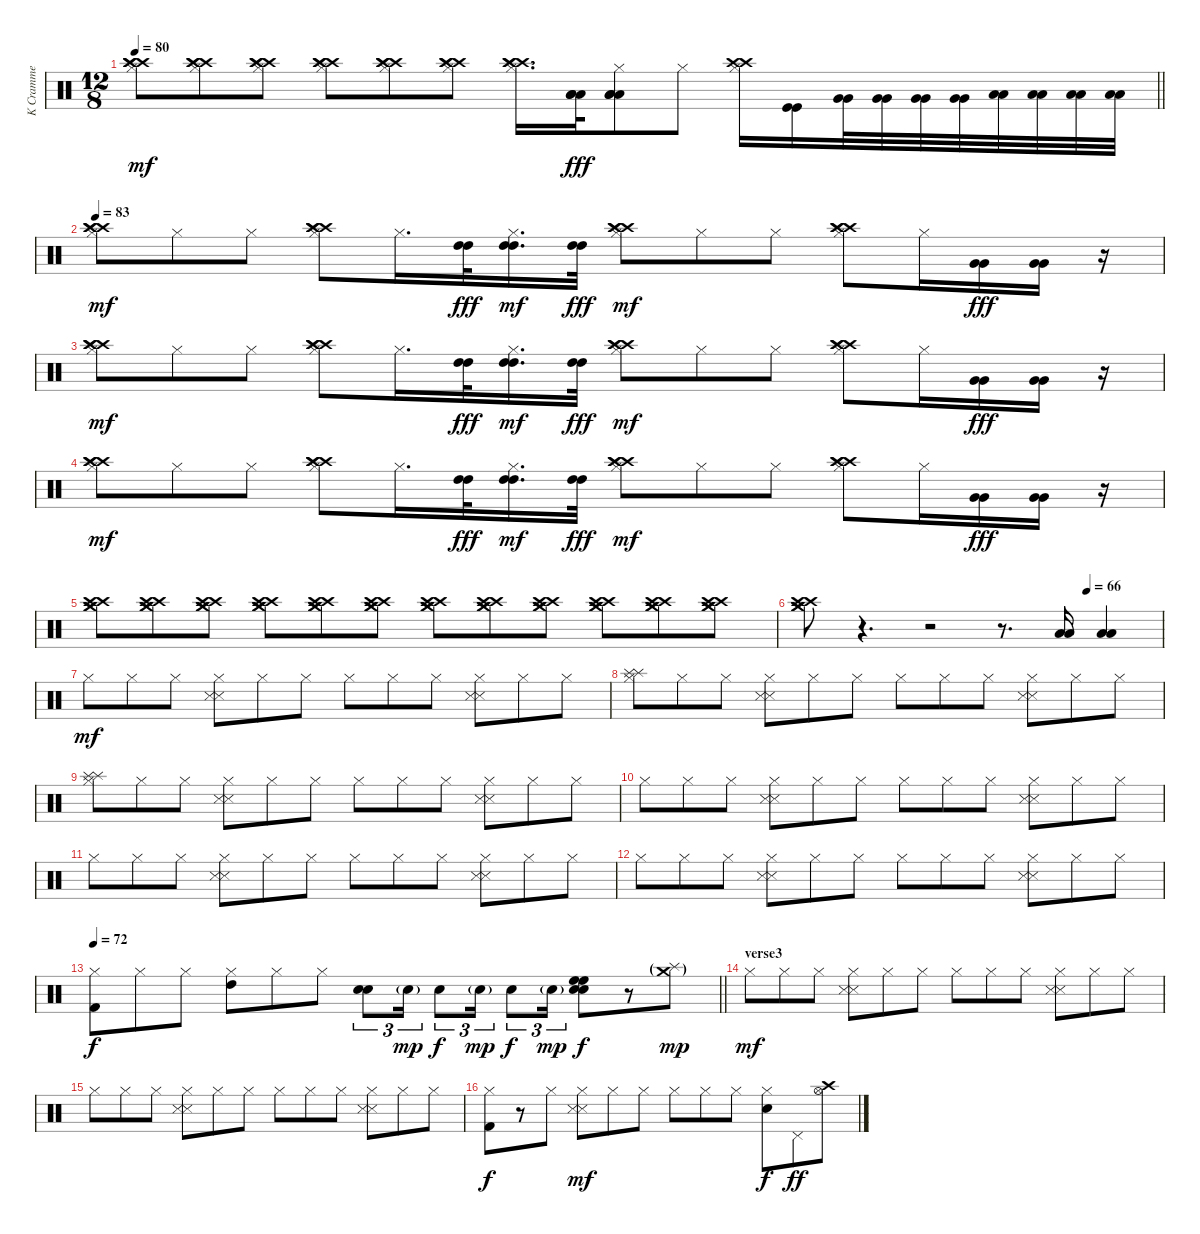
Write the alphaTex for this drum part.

\track ("K Cramme" "K Cramme") {instrument percussion}
\staff {score}
\articulation defaults
\ts (12 8)
\tempo 80
\clef neutral
\barLineRight lightlight
\ks c
("Crash high (hit)" "Crash high (hit)" "Crash high (hit)" "Hi-Hat (closed)").8{dy mf} ("Crash high (hit)" "Crash high (hit)" "Crash high (hit)" "Hi-Hat (closed)").8 ("Crash high (hit)" "Crash high (hit)" "Crash high (hit)" "Hi-Hat (closed)").8 ("Crash high (hit)" "Crash high (hit)" "Crash high (hit)" "Hi-Hat (closed)").8 ("Crash high (hit)" "Crash high (hit)" "Crash high (hit)" "Hi-Hat (closed)").8 ("Crash high (hit)" "Crash high (hit)" "Crash high (hit)" "Hi-Hat (closed)").8 ("Crash high (hit)" "Crash high (hit)" "Crash high (hit)" "Hi-Hat (closed)").16{d} ("Low Tom (hit)" "Low Tom (hit)" "Low Tom (hit)").32{dy fff} ("Low Floor Tom (hit)" "Low Floor Tom (hit)" "Low Floor Tom (hit)" "Hi-Hat (closed)").8 "Hi-Hat (closed)".8 ("Crash high (hit)" "Crash high (hit)" "Hi-Hat (closed)").16 ("Kick (hit)" "Kick (hit)").16 ("Very Low Tom (hit)" "Very Low Tom (hit)").32 ("Very Low Tom (hit)" "Very Low Tom (hit)").32 ("Very Low Tom (hit)" "Very Low Tom (hit)").32 ("Very Low Tom (hit)" "Very Low Tom (hit)").32 ("Low Floor Tom (hit)" "Low Floor Tom (hit)").32 ("Low Floor Tom (hit)" "Low Floor Tom (hit)").32 ("Low Floor Tom (hit)" "Low Floor Tom (hit)").32 ("Low Floor Tom (hit)" "Low Floor Tom (hit)").32 |
\tempo 83
("Crash high (hit)" "Crash high (hit)" "Crash high (hit)" "Hi-Hat (closed)").8{dy mf} "Hi-Hat (closed)".8 "Hi-Hat (closed)".8 ("Crash high (hit)" "Crash high (hit)" "Crash high (hit)" "Hi-Hat (closed)").8 "Hi-Hat (closed)".16{d} ("High Tom (hit)" "High Tom (hit)").32{dy fff} ("High Tom (hit)" "High Tom (hit)" "Hi-Hat (closed)").16{d dy mf} ("High Tom (hit)" "High Tom (hit)").32{dy fff} ("Crash high (hit)" "Crash high (hit)" "Crash high (hit)" "Hi-Hat (closed)").8{dy mf} "Hi-Hat (closed)".8 "Hi-Hat (closed)".8 ("Crash high (hit)" "Crash high (hit)" "Crash high (hit)" "Hi-Hat (closed)").8 "Hi-Hat (closed)".16 ("Very Low Tom (hit)" "Very Low Tom (hit)").16{dy fff} ("Very Low Tom (hit)" "Very Low Tom (hit)").16 r.16 |
("Crash high (hit)" "Crash high (hit)" "Crash high (hit)" "Hi-Hat (closed)").8{dy mf} "Hi-Hat (closed)".8 "Hi-Hat (closed)".8 ("Crash high (hit)" "Crash high (hit)" "Crash high (hit)" "Hi-Hat (closed)").8 "Hi-Hat (closed)".16{d} ("High Tom (hit)" "High Tom (hit)").32{dy fff} ("High Tom (hit)" "High Tom (hit)" "Hi-Hat (closed)").16{d dy mf} ("High Tom (hit)" "High Tom (hit)").32{dy fff} ("Crash high (hit)" "Crash high (hit)" "Crash high (hit)" "Hi-Hat (closed)").8{dy mf} "Hi-Hat (closed)".8 "Hi-Hat (closed)".8 ("Crash high (hit)" "Crash high (hit)" "Crash high (hit)" "Hi-Hat (closed)").8 "Hi-Hat (closed)".16 ("Very Low Tom (hit)" "Very Low Tom (hit)").16{dy fff} ("Very Low Tom (hit)" "Very Low Tom (hit)").16 r.16 |
("Crash high (hit)" "Crash high (hit)" "Crash high (hit)" "Hi-Hat (closed)").8{dy mf} "Hi-Hat (closed)".8 "Hi-Hat (closed)".8 ("Crash high (hit)" "Crash high (hit)" "Crash high (hit)" "Hi-Hat (closed)").8 "Hi-Hat (closed)".16{d} ("High Tom (hit)" "High Tom (hit)").32{dy fff} ("High Tom (hit)" "High Tom (hit)" "Hi-Hat (closed)").16{d dy mf} ("High Tom (hit)" "High Tom (hit)").32{dy fff} ("Crash high (hit)" "Crash high (hit)" "Crash high (hit)" "Hi-Hat (closed)").8{dy mf} "Hi-Hat (closed)".8 "Hi-Hat (closed)".8 ("Crash high (hit)" "Crash high (hit)" "Crash high (hit)" "Hi-Hat (closed)").8 "Hi-Hat (closed)".16 ("Very Low Tom (hit)" "Very Low Tom (hit)").16{dy fff} ("Very Low Tom (hit)" "Very Low Tom (hit)").16 r.16 |
("Crash high (hit)" "Crash high (hit)" "Crash medium (hit)" "Crash medium (hit)").8 ("Crash high (hit)" "Crash high (hit)" "Crash medium (hit)" "Crash medium (hit)").8 ("Crash high (hit)" "Crash high (hit)" "Crash medium (hit)" "Crash medium (hit)").8 ("Crash high (hit)" "Crash high (hit)" "Crash medium (hit)" "Crash medium (hit)").8 ("Crash high (hit)" "Crash high (hit)" "Crash medium (hit)" "Crash medium (hit)").8 ("Crash high (hit)" "Crash high (hit)" "Crash medium (hit)" "Crash medium (hit)").8 ("Crash high (hit)" "Crash high (hit)" "Crash medium (hit)" "Crash medium (hit)").8 ("Crash high (hit)" "Crash high (hit)" "Crash medium (hit)" "Crash medium (hit)").8 ("Crash high (hit)" "Crash high (hit)" "Crash medium (hit)" "Crash medium (hit)").8 ("Crash high (hit)" "Crash high (hit)" "Crash medium (hit)" "Crash medium (hit)").8 ("Crash high (hit)" "Crash high (hit)" "Crash medium (hit)" "Crash medium (hit)").8 ("Crash high (hit)" "Crash high (hit)" "Crash medium (hit)" "Crash medium (hit)").8 |
\tempo (66 0.7916666666666666)
("Crash high (hit)" "Crash high (hit)" "Crash medium (hit)" "Crash medium (hit)").8 r.4{d} r.2 r.8{d} ("Low Tom (hit)" "Low Tom (hit)").16 ("Low Tom (hit)" "Low Tom (hit)").4 |
"Hi-Hat (closed)".8{dy mf} "Hi-Hat (closed)".8 "Hi-Hat (closed)".8 ("Snare (side stick) 3" "Snare (side stick) 3" "Hi-Hat (closed)").8 "Hi-Hat (closed)".8 "Hi-Hat (closed)".8 "Hi-Hat (closed)".8 "Hi-Hat (closed)".8 "Hi-Hat (closed)".8 ("Snare (side stick) 3" "Snare (side stick) 3" "Hi-Hat (closed)").8 "Hi-Hat (closed)".8 "Hi-Hat (closed)".8 |
("Splash (hit)" "Splash (hit)" "Hi-Hat (closed)").8 "Hi-Hat (closed)".8 "Hi-Hat (closed)".8 ("Snare (side stick) 3" "Snare (side stick) 3" "Hi-Hat (closed)").8 "Hi-Hat (closed)".8 "Hi-Hat (closed)".8 "Hi-Hat (closed)".8 "Hi-Hat (closed)".8 "Hi-Hat (closed)".8 ("Snare (side stick) 3" "Snare (side stick) 3" "Hi-Hat (closed)").8 "Hi-Hat (closed)".8 "Hi-Hat (closed)".8 |
("Splash (hit)" "Splash (hit)" "Hi-Hat (closed)").8 "Hi-Hat (closed)".8 "Hi-Hat (closed)".8 ("Snare (side stick) 3" "Snare (side stick) 3" "Hi-Hat (closed)").8 "Hi-Hat (closed)".8 "Hi-Hat (closed)".8 "Hi-Hat (closed)".8 "Hi-Hat (closed)".8 "Hi-Hat (closed)".8 ("Snare (side stick) 3" "Snare (side stick) 3" "Hi-Hat (closed)").8 "Hi-Hat (closed)".8 "Hi-Hat (closed)".8 |
"Hi-Hat (closed)".8 "Hi-Hat (closed)".8 "Hi-Hat (closed)".8 ("Snare (side stick) 3" "Snare (side stick) 3" "Hi-Hat (closed)").8 "Hi-Hat (closed)".8 "Hi-Hat (closed)".8 "Hi-Hat (closed)".8 "Hi-Hat (closed)".8 "Hi-Hat (closed)".8 ("Snare (side stick) 3" "Snare (side stick) 3" "Hi-Hat (closed)").8 "Hi-Hat (closed)".8 "Hi-Hat (closed)".8 |
"Hi-Hat (closed)".8 "Hi-Hat (closed)".8 "Hi-Hat (closed)".8 ("Snare (side stick) 3" "Snare (side stick) 3" "Hi-Hat (closed)").8 "Hi-Hat (closed)".8 "Hi-Hat (closed)".8 "Hi-Hat (closed)".8 "Hi-Hat (closed)".8 "Hi-Hat (closed)".8 ("Snare (side stick) 3" "Snare (side stick) 3" "Hi-Hat (closed)").8 "Hi-Hat (closed)".8 "Hi-Hat (closed)".8 |
"Hi-Hat (closed)".8 "Hi-Hat (closed)".8 "Hi-Hat (closed)".8 ("Snare (side stick) 3" "Snare (side stick) 3" "Hi-Hat (closed)").8 "Hi-Hat (closed)".8 "Hi-Hat (closed)".8 "Hi-Hat (closed)".8 "Hi-Hat (closed)".8 "Hi-Hat (closed)".8 ("Snare (side stick) 3" "Snare (side stick) 3" "Hi-Hat (closed)").8 "Hi-Hat (closed)".8 "Hi-Hat (closed)".8 |
\tempo 72
\barLineRight lightlight
("Kick (hit) 2" "Hi-Hat (closed)").8{dy f} "Hi-Hat (closed)".8 "Hi-Hat (closed)".8 ("High Tom (hit)" "Hi-Hat (closed)").8 "Hi-Hat (closed)".8 "Hi-Hat (closed)".8 ("Snare (hit) 2" "Snare (hit) 2").8{tu (3 2)} "Snare (hit) 2"{g}.16{tu (3 2) dy mp} "Snare (hit) 2".8{tu (3 2) dy f} "Snare (hit) 2"{g}.16{tu (3 2) dy mp} "Snare (hit) 2".8{tu (3 2) dy f} "Snare (hit) 2"{g}.16{tu (3 2) dy mp} ("High Floor Tom (hit)" "High Floor Tom (hit)" "Snare (hit) 2" "Snare (hit) 2").8{dy f} r.8 ("Splash (hit)"{g} "Crash medium (hit)"{g}).8{dy mp} |
\section ("" "verse3")
"Hi-Hat (closed)".8{dy mf} "Hi-Hat (closed)".8 "Hi-Hat (closed)".8 ("Snare (side stick) 3" "Snare (side stick) 3" "Hi-Hat (closed)").8 "Hi-Hat (closed)".8 "Hi-Hat (closed)".8 "Hi-Hat (closed)".8 "Hi-Hat (closed)".8 "Hi-Hat (closed)".8 ("Snare (side stick) 3" "Snare (side stick) 3" "Hi-Hat (closed)").8 "Hi-Hat (closed)".8 "Hi-Hat (closed)".8 |
"Hi-Hat (closed)".8 "Hi-Hat (closed)".8 "Hi-Hat (closed)".8 ("Snare (side stick) 3" "Snare (side stick) 3" "Hi-Hat (closed)").8 "Hi-Hat (closed)".8 "Hi-Hat (closed)".8 "Hi-Hat (closed)".8 "Hi-Hat (closed)".8 "Hi-Hat (closed)".8 ("Snare (side stick) 3" "Snare (side stick) 3" "Hi-Hat (closed)").8 "Hi-Hat (closed)".8 "Hi-Hat (closed)".8 |
("Kick (hit) 2" "Hi-Hat (closed)").8{dy f} r.8 "Hi-Hat (closed)".8 ("Snare (side stick) 3" "Snare (side stick) 3" "Hi-Hat (closed)").8{dy mf} "Hi-Hat (closed)".8 "Hi-Hat (closed)".8 "Hi-Hat (closed)".8 "Hi-Hat (closed)".8 "Hi-Hat (closed)".8 ("Snare (hit) 2" "Hi-Hat (closed)").8{dy f} "Pedal Hi-Hat (hit)".8{dy ff} ("Crash high (hit)" "Hi-Hat (open)").8
